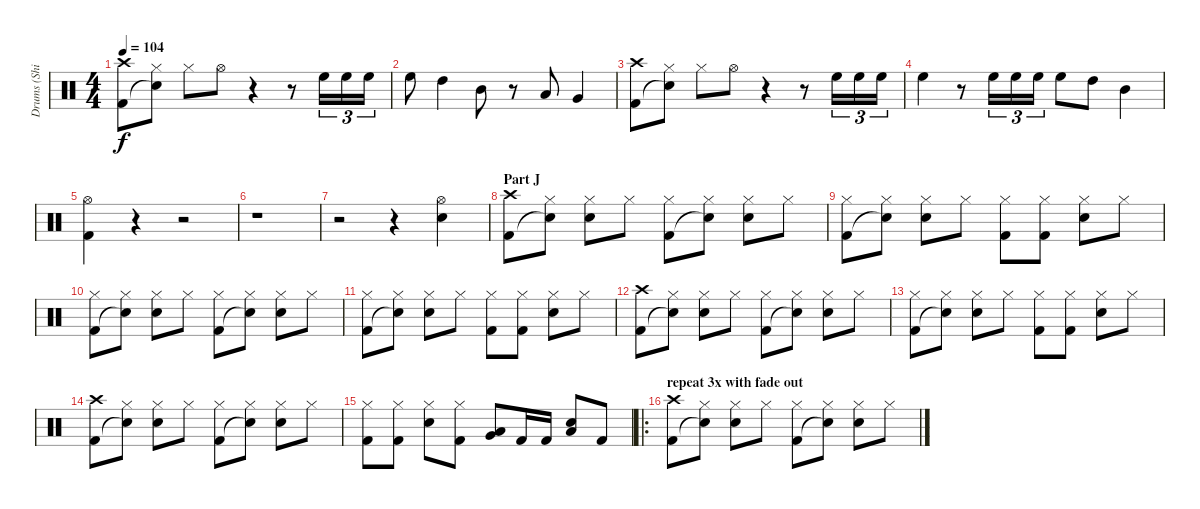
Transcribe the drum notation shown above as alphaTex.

\track ("Drums (Shinya)" "Drums (Shi") {instrument percussion}
\staff {score}
\articulation defaults
\ts (4 4)
\tempo 104
\clef neutral
\ks c
("Crash high (hit)" "Kick (hit) 2").8{dy f} ("Hi-Hat (closed)" "Snare (hit)"{t}).8 "Hi-Hat (closed)".8 "Hi-Hat (open)".8 r.4 r.8 "High Floor Tom (hit)".16{tu (3 2)} "High Floor Tom (hit)".16{tu (3 2)} "High Floor Tom (hit)".16{tu (3 2)} |
"High Floor Tom (hit)".8 "High Tom (hit)".4 "Mid Tom (hit)".8 r.8 "Low Tom (hit)".8 "Very Low Tom (hit)".4 |
("Crash high (hit)" "Kick (hit) 2").8 ("Hi-Hat (closed)" "Snare (hit)"{t}).8 "Hi-Hat (closed)".8 "Hi-Hat (open)".8 r.4 r.8 "High Floor Tom (hit)".16{tu (3 2)} "High Floor Tom (hit)".16{tu (3 2)} "High Floor Tom (hit)".16{tu (3 2)} |
"High Floor Tom (hit)".4 r.8 "High Floor Tom (hit)".16{tu (3 2)} "High Floor Tom (hit)".16{tu (3 2)} "High Floor Tom (hit)".16{tu (3 2)} "High Floor Tom (hit)".8 "High Tom (hit)".8 "Mid Tom (hit)".4 |
("Hi-Hat (open)" "Kick (hit) 2").4 r.4 r.2 |
r.1 |
r.2 r.4 ("Hi-Hat (open)" "Electric Snare (hit)").4 |
\section ("" "Part J")
("Crash high (hit)" "Kick (hit) 2").8 ("Hi-Hat (closed)" "Snare (hit)"{t}).8 ("Hi-Hat (closed)" "Electric Snare (hit)").8 "Hi-Hat (closed)".8 ("Hi-Hat (closed)" "Kick (hit) 2").8 ("Hi-Hat (closed)" "Snare (hit)"{t}).8 ("Hi-Hat (closed)" "Electric Snare (hit)").8 "Hi-Hat (closed)".8 |
("Hi-Hat (closed)" "Kick (hit) 2").8 ("Hi-Hat (closed)" "Snare (hit)"{t}).8 ("Hi-Hat (closed)" "Electric Snare (hit)").8 "Hi-Hat (closed)".8 ("Hi-Hat (closed)" "Kick (hit) 2").8 ("Hi-Hat (closed)" "Kick (hit) 2").8 ("Hi-Hat (closed)" "Electric Snare (hit)").8 "Hi-Hat (closed)".8 |
("Hi-Hat (closed)" "Kick (hit) 2").8 ("Hi-Hat (closed)" "Snare (hit)"{t}).8 ("Hi-Hat (closed)" "Electric Snare (hit)").8 "Hi-Hat (closed)".8 ("Hi-Hat (closed)" "Kick (hit) 2").8 ("Hi-Hat (closed)" "Snare (hit)"{t}).8 ("Hi-Hat (closed)" "Electric Snare (hit)").8 "Hi-Hat (closed)".8 |
("Hi-Hat (closed)" "Kick (hit) 2").8 ("Hi-Hat (closed)" "Snare (hit)"{t}).8 ("Hi-Hat (closed)" "Electric Snare (hit)").8 "Hi-Hat (closed)".8 ("Hi-Hat (closed)" "Kick (hit) 2").8 ("Hi-Hat (closed)" "Kick (hit) 2").8 ("Hi-Hat (closed)" "Electric Snare (hit)").8 "Hi-Hat (closed)".8 |
("Crash high (hit)" "Kick (hit) 2").8 ("Hi-Hat (closed)" "Snare (hit)"{t}).8 ("Hi-Hat (closed)" "Electric Snare (hit)").8 "Hi-Hat (closed)".8 ("Hi-Hat (closed)" "Kick (hit) 2").8 ("Hi-Hat (closed)" "Snare (hit)"{t}).8 ("Hi-Hat (closed)" "Electric Snare (hit)").8 "Hi-Hat (closed)".8 |
("Hi-Hat (closed)" "Kick (hit) 2").8 ("Hi-Hat (closed)" "Snare (hit)"{t}).8 ("Hi-Hat (closed)" "Electric Snare (hit)").8 "Hi-Hat (closed)".8 ("Hi-Hat (closed)" "Kick (hit) 2").8 ("Hi-Hat (closed)" "Kick (hit) 2").8 ("Hi-Hat (closed)" "Electric Snare (hit)").8 "Hi-Hat (closed)".8 |
("Crash high (hit)" "Kick (hit) 2").8 ("Hi-Hat (closed)" "Snare (hit)"{t}).8 ("Hi-Hat (closed)" "Electric Snare (hit)").8 "Hi-Hat (closed)".8 ("Hi-Hat (closed)" "Kick (hit) 2").8 ("Hi-Hat (closed)" "Snare (hit)"{t}).8 ("Hi-Hat (closed)" "Electric Snare (hit)").8 "Hi-Hat (closed)".8 |
("Hi-Hat (closed)" "Kick (hit) 2").8 ("Hi-Hat (closed)" "Kick (hit) 2").8 ("Hi-Hat (closed)" "Electric Snare (hit)").8 ("Hi-Hat (closed)" "Kick (hit) 2").8 ("Low Tom (hit)" "Very Low Tom (hit)").8 "Kick (hit) 2".16 "Kick (hit) 2".16 ("Electric Snare (hit)" "Low Tom (hit)").8 "Kick (hit) 2".8 |
\ro
\section ("" "repeat 3x with fade out")
("Crash high (hit)" "Kick (hit) 2").8 ("Hi-Hat (closed)" "Snare (hit)"{t}).8 ("Hi-Hat (closed)" "Electric Snare (hit)").8 "Hi-Hat (closed)".8 ("Hi-Hat (closed)" "Kick (hit) 2").8 ("Hi-Hat (closed)" "Snare (hit)"{t}).8 ("Hi-Hat (closed)" "Electric Snare (hit)").8 "Hi-Hat (closed)".8
